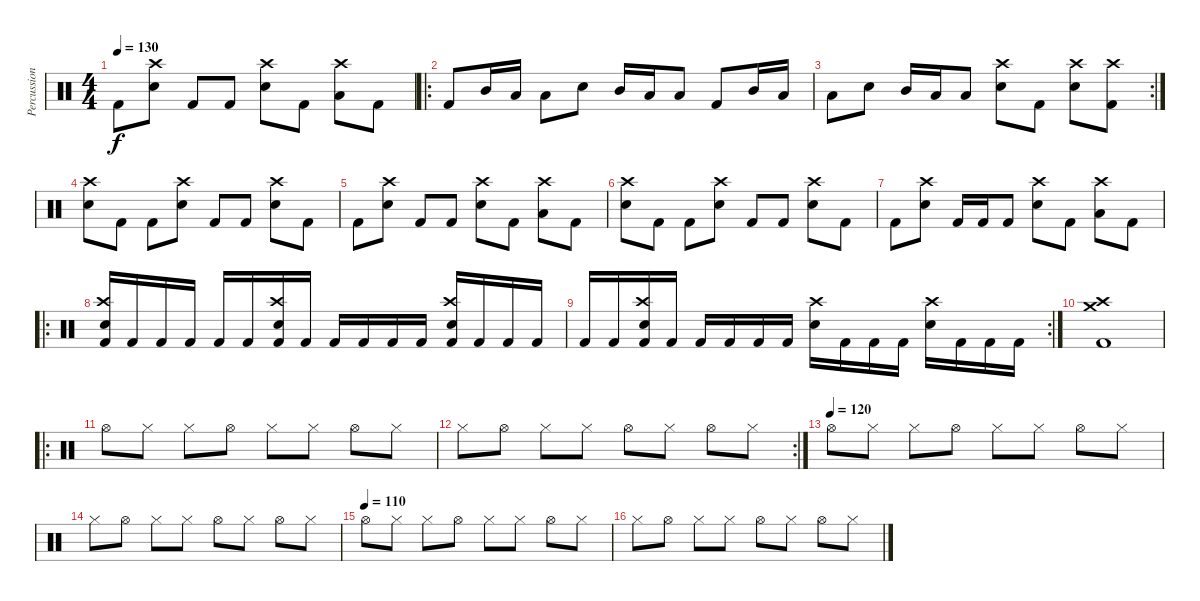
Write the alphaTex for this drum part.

\track ("Percussion" "Percussion") {instrument percussion}
\staff {score}
\articulation defaults
\ts (4 4)
\tempo 130
\clef neutral
\ks c "Kick (hit) 2".8{dy f}
("Crash high (hit)" "Electric Snare (hit)").8 "Kick (hit) 2".8 "Kick (hit) 2".8 ("Crash high (hit)" "Electric Snare (hit)").8 "Kick (hit) 2".8 ("Crash high (hit)" "Low Floor Tom (hit)").8 "Kick (hit) 2".8 |
\ro "Kick (hit) 2".8 "Mid Tom (hit)".16 "Low Tom (hit)".16 "Low Floor Tom (hit)".8 "Electric Snare (hit)".8 "Mid Tom (hit)".16 "Low Tom (hit)".16 "Low Floor Tom (hit)".8 "Kick (hit) 2".8 "Mid Tom (hit)".16 "Low Tom (hit)".16
|
\rc 2 "Low Floor Tom (hit)".8 "Electric Snare (hit)".8 "Mid Tom (hit)".16 "Low Tom (hit)".16 "Low Floor Tom (hit)".8
("Crash high (hit)" "Electric Snare (hit)").8 "Kick (hit) 2".8 ("Crash high (hit)" "Electric Snare (hit)").8 ("Crash high (hit)" "Kick (hit) 2").8 |
("Crash high (hit)" "Electric Snare (hit)").8 "Kick (hit) 2".8 "Kick (hit) 2".8 ("Crash high (hit)" "Electric Snare (hit)").8 "Kick (hit) 2".8 "Kick (hit) 2".8 ("Crash high (hit)" "Electric Snare (hit)").8 "Kick (hit) 2".8 |
"Kick (hit) 2".8 ("Crash high (hit)" "Electric Snare (hit)").8 "Kick (hit) 2".8 "Kick (hit) 2".8 ("Crash high (hit)" "Electric Snare (hit)").8 "Kick (hit) 2".8 ("Crash high (hit)" "Low Floor Tom (hit)").8 "Kick (hit) 2".8 |
("Crash high (hit)" "Electric Snare (hit)").8 "Kick (hit) 2".8 "Kick (hit) 2".8 ("Crash high (hit)" "Electric Snare (hit)").8 "Kick (hit) 2".8 "Kick (hit) 2".8 ("Crash high (hit)" "Electric Snare (hit)").8 "Kick (hit) 2".8 |
"Kick (hit) 2".8 ("Crash high (hit)" "Electric Snare (hit)").8 "Kick (hit) 2".16 "Kick (hit) 2".16 "Kick (hit) 2".8 ("Crash high (hit)" "Electric Snare (hit)").8 "Kick (hit) 2".8 ("Crash high (hit)" "Low Floor Tom (hit)").8 "Kick (hit) 2".8 |
\ro
("Crash high (hit)" "Electric Snare (hit)" "Kick (hit) 2").16 "Kick (hit) 2".16 "Kick (hit) 2".16 "Kick (hit) 2".16 "Kick (hit) 2".16 "Kick (hit) 2".16 ("Crash high (hit)" "Electric Snare (hit)" "Kick (hit) 2").16 "Kick (hit) 2".16 "Kick (hit) 2".16 "Kick (hit) 2".16 "Kick (hit) 2".16 "Kick (hit) 2".16 ("Crash high (hit)" "Electric Snare (hit)" "Kick (hit) 2").16 "Kick (hit) 2".16 "Kick (hit) 2".16 "Kick (hit) 2".16 |
\rc 2 "Kick (hit) 2".16 "Kick (hit) 2".16
("Crash high (hit)" "Electric Snare (hit)" "Kick (hit) 2").16 "Kick (hit) 2".16 "Kick (hit) 2".16 "Kick (hit) 2".16 "Kick (hit) 2".16 "Kick (hit) 2".16 ("Crash high (hit)" "Electric Snare (hit)").16 "Kick (hit) 2".16 "Kick (hit) 2".16 "Kick (hit) 2".16 ("Crash high (hit)" "Electric Snare (hit)").16 "Kick (hit) 2".16 "Kick (hit) 2".16 "Kick (hit) 2".16 |
("Crash medium (hit)" "Crash high (hit)" "Kick (hit) 2").1 |
\ro "Hi-Hat (open)".8{volume 10} "Hi-Hat (closed)".8 "Hi-Hat (closed)".8 "Hi-Hat (open)".8 "Hi-Hat (closed)".8 "Hi-Hat (closed)".8 "Hi-Hat (open)".8 "Hi-Hat (closed)".8
|
\rc 2 "Hi-Hat (closed)".8 "Hi-Hat (open)".8 "Hi-Hat (closed)".8 "Hi-Hat (closed)".8 "Hi-Hat (open)".8 "Hi-Hat (closed)".8 "Hi-Hat (open)".8 "Hi-Hat (closed)".8
|
\tempo (120)
"Hi-Hat (open)".8{volume 10} "Hi-Hat (closed)".8 "Hi-Hat (closed)".8 "Hi-Hat (open)".8 "Hi-Hat (closed)".8 "Hi-Hat (closed)".8 "Hi-Hat (open)".8 "Hi-Hat (closed)".8 |
"Hi-Hat (closed)".8 "Hi-Hat (open)".8 "Hi-Hat (closed)".8 "Hi-Hat (closed)".8 "Hi-Hat (open)".8 "Hi-Hat (closed)".8 "Hi-Hat (open)".8 "Hi-Hat (closed)".8 |
\tempo (110)
"Hi-Hat (open)".8{volume 10} "Hi-Hat (closed)".8 "Hi-Hat (closed)".8 "Hi-Hat (open)".8 "Hi-Hat (closed)".8 "Hi-Hat (closed)".8 "Hi-Hat (open)".8 "Hi-Hat (closed)".8 |
"Hi-Hat (closed)".8 "Hi-Hat (open)".8 "Hi-Hat (closed)".8 "Hi-Hat (closed)".8 "Hi-Hat (open)".8 "Hi-Hat (closed)".8 "Hi-Hat (open)".8 "Hi-Hat (closed)".8
